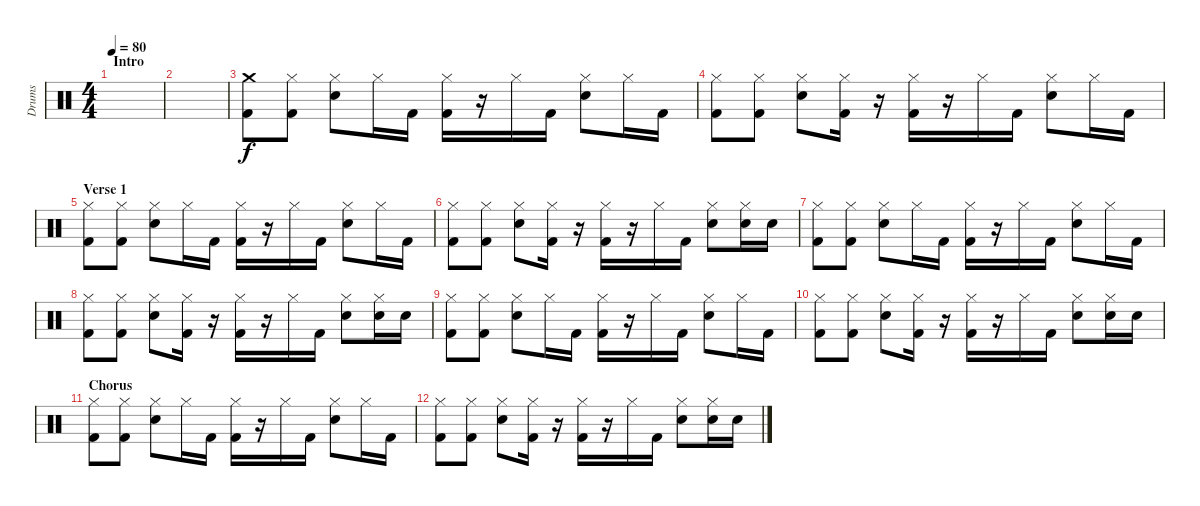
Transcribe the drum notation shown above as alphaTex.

\track ("Drums" "Drums") {instrument percussion}
\staff {score}
\articulation defaults
\ts (4 4)
\section ("" "Intro")
\tempo 80
\clef neutral
\ks c
|
|
("Crash medium (hit)" "Kick (hit) 2").8 ("Hi-Hat (closed)" "Kick (hit) 2").8 ("Hi-Hat (closed)" "Electric Snare (hit)").8 "Hi-Hat (closed)".16 "Kick (hit) 2".16 ("Hi-Hat (closed)" "Kick (hit) 2").16 r.16 "Hi-Hat (closed)".16 "Kick (hit) 2".16 ("Hi-Hat (closed)" "Electric Snare (hit)").8 "Hi-Hat (closed)".16 "Kick (hit) 2".16 |
("Hi-Hat (closed)" "Kick (hit) 2").8 ("Hi-Hat (closed)" "Kick (hit) 2").8 ("Hi-Hat (closed)" "Electric Snare (hit)").8 ("Hi-Hat (closed)" "Kick (hit) 2").16 r.16 ("Hi-Hat (closed)" "Kick (hit) 2").16 r.16 "Hi-Hat (closed)".16 "Kick (hit) 2".16 ("Hi-Hat (closed)" "Electric Snare (hit)").8 "Hi-Hat (closed)".16 "Kick (hit) 2".16 |
\section ("" "Verse 1")
("Hi-Hat (closed)" "Kick (hit) 2").8 ("Hi-Hat (closed)" "Kick (hit) 2").8 ("Hi-Hat (closed)" "Electric Snare (hit)").8 "Hi-Hat (closed)".16 "Kick (hit) 2".16 ("Hi-Hat (closed)" "Kick (hit) 2").16 r.16 "Hi-Hat (closed)".16 "Kick (hit) 2".16 ("Hi-Hat (closed)" "Electric Snare (hit)").8 "Hi-Hat (closed)".16 "Kick (hit) 2".16 |
("Hi-Hat (closed)" "Kick (hit) 2").8 ("Hi-Hat (closed)" "Kick (hit) 2").8 ("Hi-Hat (closed)" "Electric Snare (hit)").8 ("Hi-Hat (closed)" "Kick (hit) 2").16 r.16 ("Hi-Hat (closed)" "Kick (hit) 2").16 r.16 "Hi-Hat (closed)".16 "Kick (hit) 2".16 ("Hi-Hat (closed)" "Electric Snare (hit)").8 ("Hi-Hat (closed)" "Electric Snare (hit)").16 "Electric Snare (hit)".16 |
("Hi-Hat (closed)" "Kick (hit) 2").8 ("Hi-Hat (closed)" "Kick (hit) 2").8 ("Hi-Hat (closed)" "Electric Snare (hit)").8 "Hi-Hat (closed)".16 "Kick (hit) 2".16 ("Hi-Hat (closed)" "Kick (hit) 2").16 r.16 "Hi-Hat (closed)".16 "Kick (hit) 2".16 ("Hi-Hat (closed)" "Electric Snare (hit)").8 "Hi-Hat (closed)".16 "Kick (hit) 2".16 |
("Hi-Hat (closed)" "Kick (hit) 2").8 ("Hi-Hat (closed)" "Kick (hit) 2").8 ("Hi-Hat (closed)" "Electric Snare (hit)").8 ("Hi-Hat (closed)" "Kick (hit) 2").16 r.16 ("Hi-Hat (closed)" "Kick (hit) 2").16 r.16 "Hi-Hat (closed)".16 "Kick (hit) 2".16 ("Hi-Hat (closed)" "Electric Snare (hit)").8 ("Hi-Hat (closed)" "Electric Snare (hit)").16 "Electric Snare (hit)".16 |
("Hi-Hat (closed)" "Kick (hit) 2").8 ("Hi-Hat (closed)" "Kick (hit) 2").8 ("Hi-Hat (closed)" "Electric Snare (hit)").8 "Hi-Hat (closed)".16 "Kick (hit) 2".16 ("Hi-Hat (closed)" "Kick (hit) 2").16 r.16 "Hi-Hat (closed)".16 "Kick (hit) 2".16 ("Hi-Hat (closed)" "Electric Snare (hit)").8 "Hi-Hat (closed)".16 "Kick (hit) 2".16 |
("Hi-Hat (closed)" "Kick (hit) 2").8 ("Hi-Hat (closed)" "Kick (hit) 2").8 ("Hi-Hat (closed)" "Electric Snare (hit)").8 ("Hi-Hat (closed)" "Kick (hit) 2").16 r.16 ("Hi-Hat (closed)" "Kick (hit) 2").16 r.16 "Hi-Hat (closed)".16 "Kick (hit) 2".16 ("Hi-Hat (closed)" "Electric Snare (hit)").8 ("Hi-Hat (closed)" "Electric Snare (hit)").16 "Electric Snare (hit)".16 |
\section ("" "Chorus")
("Hi-Hat (closed)" "Kick (hit) 2").8 ("Hi-Hat (closed)" "Kick (hit) 2").8 ("Hi-Hat (closed)" "Electric Snare (hit)").8 "Hi-Hat (closed)".16 "Kick (hit) 2".16 ("Hi-Hat (closed)" "Kick (hit) 2").16 r.16 "Hi-Hat (closed)".16 "Kick (hit) 2".16 ("Hi-Hat (closed)" "Electric Snare (hit)").8 "Hi-Hat (closed)".16 "Kick (hit) 2".16 |
("Hi-Hat (closed)" "Kick (hit) 2").8 ("Hi-Hat (closed)" "Kick (hit) 2").8 ("Hi-Hat (closed)" "Electric Snare (hit)").8 ("Hi-Hat (closed)" "Kick (hit) 2").16 r.16 ("Hi-Hat (closed)" "Kick (hit) 2").16 r.16 "Hi-Hat (closed)".16 "Kick (hit) 2".16 ("Hi-Hat (closed)" "Electric Snare (hit)").8 ("Hi-Hat (closed)" "Electric Snare (hit)").16 "Electric Snare (hit)".16
